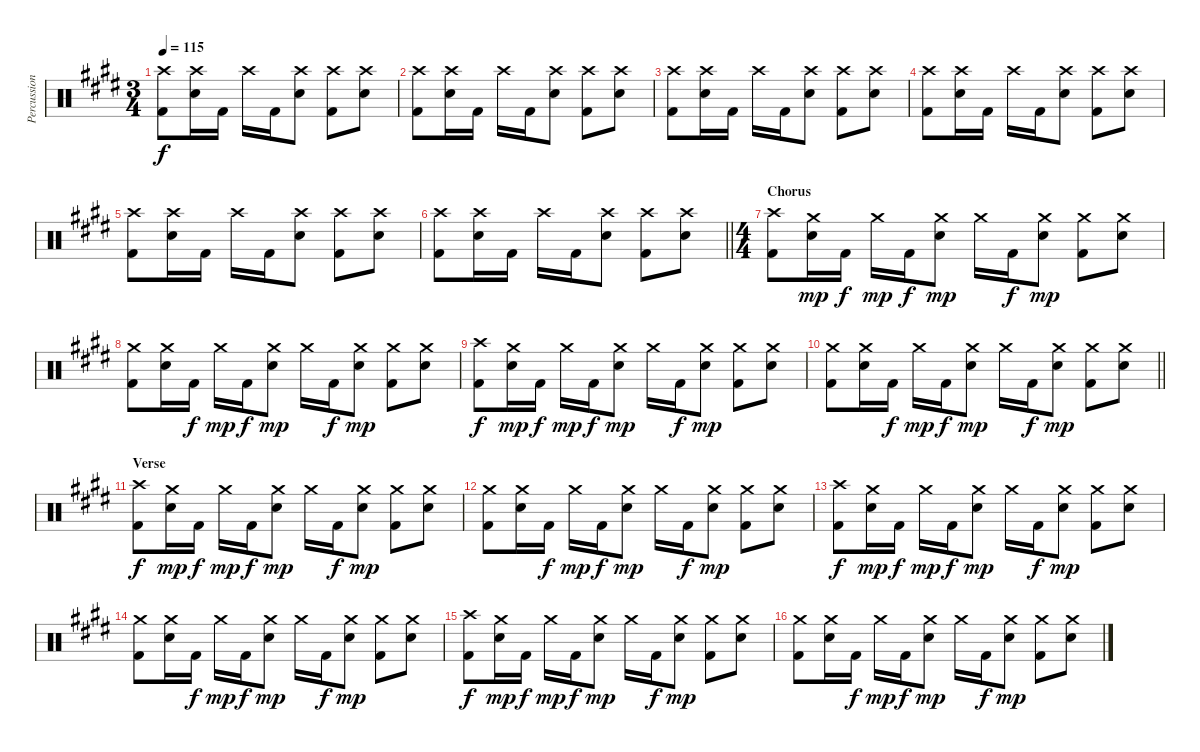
\track ("Percussion" "Percussion") {instrument percussion}
\staff {score}
\articulation defaults
\ts (3 4)
\tempo 115
\clef neutral
\ks e
("Crash high (hit)" "Kick (hit) 2").8{dy f} ("Crash high (hit)" "Electric Snare (hit)").16 "Kick (hit) 2".16 "Crash high (hit)".16 "Kick (hit) 2".16 ("Crash high (hit)" "Electric Snare (hit)").8 ("Crash high (hit)" "Kick (hit) 2").8 ("Crash high (hit)" "Electric Snare (hit)").8 |
("Crash high (hit)" "Kick (hit) 2").8 ("Crash high (hit)" "Electric Snare (hit)").16 "Kick (hit) 2".16 "Crash high (hit)".16 "Kick (hit) 2".16 ("Crash high (hit)" "Electric Snare (hit)").8 ("Crash high (hit)" "Kick (hit) 2").8 ("Crash high (hit)" "Electric Snare (hit)").8 |
("Crash high (hit)" "Kick (hit) 2").8 ("Crash high (hit)" "Electric Snare (hit)").16 "Kick (hit) 2".16 "Crash high (hit)".16 "Kick (hit) 2".16 ("Crash high (hit)" "Electric Snare (hit)").8 ("Crash high (hit)" "Kick (hit) 2").8 ("Crash high (hit)" "Electric Snare (hit)").8 |
("Crash high (hit)" "Kick (hit) 2").8 ("Crash high (hit)" "Electric Snare (hit)").16 "Kick (hit) 2".16 "Crash high (hit)".16 "Kick (hit) 2".16 ("Crash high (hit)" "Electric Snare (hit)").8 ("Crash high (hit)" "Kick (hit) 2").8 ("Crash high (hit)" "Electric Snare (hit)").8 |
("Crash high (hit)" "Kick (hit) 2").8 ("Crash high (hit)" "Electric Snare (hit)").16 "Kick (hit) 2".16 "Crash high (hit)".16 "Kick (hit) 2".16 ("Crash high (hit)" "Electric Snare (hit)").8 ("Crash high (hit)" "Kick (hit) 2").8 ("Crash high (hit)" "Electric Snare (hit)").8 |
\barLineRight lightlight
("Crash high (hit)" "Kick (hit) 2").8 ("Crash high (hit)" "Electric Snare (hit)").16 "Kick (hit) 2".16 "Crash high (hit)".16 "Kick (hit) 2".16 ("Crash high (hit)" "Electric Snare (hit)").8 ("Crash high (hit)" "Kick (hit) 2").8 ("Crash high (hit)" "Electric Snare (hit)").8 |
\ts (4 4)
\section ("" "Chorus")
("Crash high (hit)" "Kick (hit) 2").8 ("Crash medium (hit)" "Electric Snare (hit)").16{dy mp} "Kick (hit) 2".16{dy f} "Crash medium (hit)".16{dy mp} "Kick (hit) 2".16{dy f} ("Crash medium (hit)" "Electric Snare (hit)").8{dy mp} "Crash medium (hit)".16 "Kick (hit) 2".16{dy f} ("Crash medium (hit)" "Electric Snare (hit)").8{dy mp} ("Crash medium (hit)" "Kick (hit) 2").8 ("Crash medium (hit)" "Electric Snare (hit)").8 |
("Crash medium (hit)" "Kick (hit) 2").8 ("Crash medium (hit)" "Electric Snare (hit)").16 "Kick (hit) 2".16{dy f} "Crash medium (hit)".16{dy mp} "Kick (hit) 2".16{dy f} ("Crash medium (hit)" "Electric Snare (hit)").8{dy mp} "Crash medium (hit)".16 "Kick (hit) 2".16{dy f} ("Crash medium (hit)" "Electric Snare (hit)").8{dy mp} ("Crash medium (hit)" "Kick (hit) 2").8 ("Crash medium (hit)" "Electric Snare (hit)").8 |
("Crash high (hit)" "Kick (hit) 2").8{dy f} ("Crash medium (hit)" "Electric Snare (hit)").16{dy mp} "Kick (hit) 2".16{dy f} "Crash medium (hit)".16{dy mp} "Kick (hit) 2".16{dy f} ("Crash medium (hit)" "Electric Snare (hit)").8{dy mp} "Crash medium (hit)".16 "Kick (hit) 2".16{dy f} ("Crash medium (hit)" "Electric Snare (hit)").8{dy mp} ("Crash medium (hit)" "Kick (hit) 2").8 ("Crash medium (hit)" "Electric Snare (hit)").8 |
\barLineRight lightlight
("Crash medium (hit)" "Kick (hit) 2").8 ("Crash medium (hit)" "Electric Snare (hit)").16 "Kick (hit) 2".16{dy f} "Crash medium (hit)".16{dy mp} "Kick (hit) 2".16{dy f} ("Crash medium (hit)" "Electric Snare (hit)").8{dy mp} "Crash medium (hit)".16 "Kick (hit) 2".16{dy f} ("Crash medium (hit)" "Electric Snare (hit)").8{dy mp} ("Crash medium (hit)" "Kick (hit) 2").8 ("Crash medium (hit)" "Electric Snare (hit)").8 |
\section ("" "Verse")
("Crash high (hit)" "Kick (hit) 2").8{dy f} ("Crash medium (hit)" "Electric Snare (hit)").16{dy mp} "Kick (hit) 2".16{dy f} "Crash medium (hit)".16{dy mp} "Kick (hit) 2".16{dy f} ("Crash medium (hit)" "Electric Snare (hit)").8{dy mp} "Crash medium (hit)".16 "Kick (hit) 2".16{dy f} ("Crash medium (hit)" "Electric Snare (hit)").8{dy mp} ("Crash medium (hit)" "Kick (hit) 2").8 ("Crash medium (hit)" "Electric Snare (hit)").8 |
("Crash medium (hit)" "Kick (hit) 2").8 ("Crash medium (hit)" "Electric Snare (hit)").16 "Kick (hit) 2".16{dy f} "Crash medium (hit)".16{dy mp} "Kick (hit) 2".16{dy f} ("Crash medium (hit)" "Electric Snare (hit)").8{dy mp} "Crash medium (hit)".16 "Kick (hit) 2".16{dy f} ("Crash medium (hit)" "Electric Snare (hit)").8{dy mp} ("Crash medium (hit)" "Kick (hit) 2").8 ("Crash medium (hit)" "Electric Snare (hit)").8 |
("Crash high (hit)" "Kick (hit) 2").8{dy f} ("Crash medium (hit)" "Electric Snare (hit)").16{dy mp} "Kick (hit) 2".16{dy f} "Crash medium (hit)".16{dy mp} "Kick (hit) 2".16{dy f} ("Crash medium (hit)" "Electric Snare (hit)").8{dy mp} "Crash medium (hit)".16 "Kick (hit) 2".16{dy f} ("Crash medium (hit)" "Electric Snare (hit)").8{dy mp} ("Crash medium (hit)" "Kick (hit) 2").8 ("Crash medium (hit)" "Electric Snare (hit)").8 |
("Crash medium (hit)" "Kick (hit) 2").8 ("Crash medium (hit)" "Electric Snare (hit)").16 "Kick (hit) 2".16{dy f} "Crash medium (hit)".16{dy mp} "Kick (hit) 2".16{dy f} ("Crash medium (hit)" "Electric Snare (hit)").8{dy mp} "Crash medium (hit)".16 "Kick (hit) 2".16{dy f} ("Crash medium (hit)" "Electric Snare (hit)").8{dy mp} ("Crash medium (hit)" "Kick (hit) 2").8 ("Crash medium (hit)" "Electric Snare (hit)").8 |
("Crash high (hit)" "Kick (hit) 2").8{dy f} ("Crash medium (hit)" "Electric Snare (hit)").16{dy mp} "Kick (hit) 2".16{dy f} "Crash medium (hit)".16{dy mp} "Kick (hit) 2".16{dy f} ("Crash medium (hit)" "Electric Snare (hit)").8{dy mp} "Crash medium (hit)".16 "Kick (hit) 2".16{dy f} ("Crash medium (hit)" "Electric Snare (hit)").8{dy mp} ("Crash medium (hit)" "Kick (hit) 2").8 ("Crash medium (hit)" "Electric Snare (hit)").8 |
("Crash medium (hit)" "Kick (hit) 2").8 ("Crash medium (hit)" "Electric Snare (hit)").16 "Kick (hit) 2".16{dy f} "Crash medium (hit)".16{dy mp} "Kick (hit) 2".16{dy f} ("Crash medium (hit)" "Electric Snare (hit)").8{dy mp} "Crash medium (hit)".16 "Kick (hit) 2".16{dy f} ("Crash medium (hit)" "Electric Snare (hit)").8{dy mp} ("Crash medium (hit)" "Kick (hit) 2").8 ("Crash medium (hit)" "Electric Snare (hit)").8
